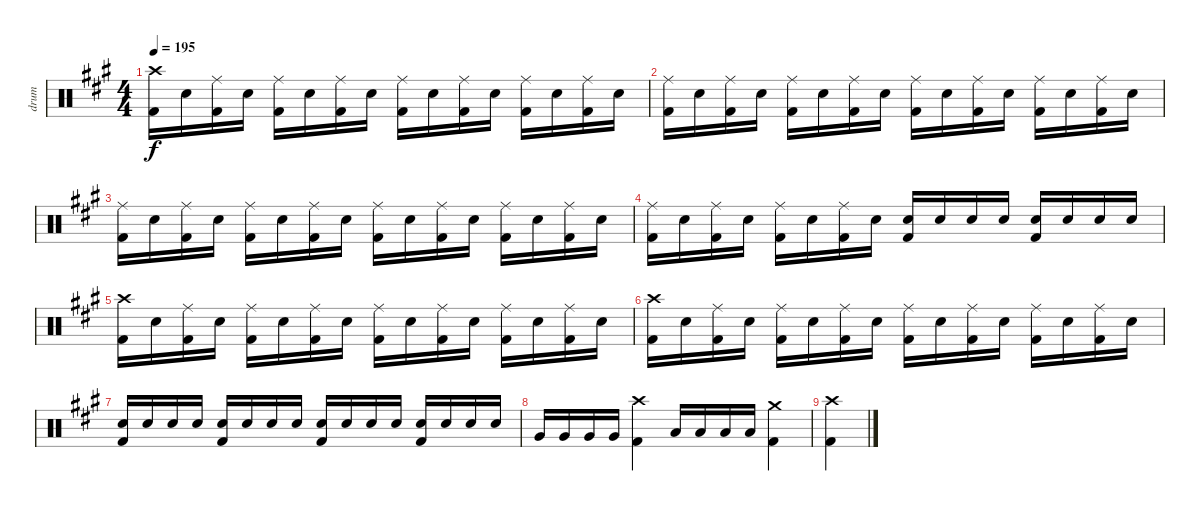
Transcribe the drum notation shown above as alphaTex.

\track ("drum" "drum") {instrument percussion}
\staff {score}
\articulation defaults
\ts (4 4)
\tempo 195
\clef neutral
\ks a
("Crash high (hit)" "Kick (hit) 2").16{dy f} "Electric Snare (hit)".16 ("Ride (middle)" "Kick (hit) 2").16 "Electric Snare (hit)".16 ("Ride (middle)" "Kick (hit) 2").16 "Electric Snare (hit)".16 ("Ride (middle)" "Kick (hit) 2").16 "Electric Snare (hit)".16 ("Ride (middle)" "Kick (hit) 2").16 "Electric Snare (hit)".16 ("Ride (middle)" "Kick (hit) 2").16 "Electric Snare (hit)".16 ("Ride (middle)" "Kick (hit) 2").16 "Electric Snare (hit)".16 ("Ride (middle)" "Kick (hit) 2").16 "Electric Snare (hit)".16 |
("Ride (middle)" "Kick (hit) 2").16 "Electric Snare (hit)".16 ("Ride (middle)" "Kick (hit) 2").16 "Electric Snare (hit)".16 ("Ride (middle)" "Kick (hit) 2").16 "Electric Snare (hit)".16 ("Ride (middle)" "Kick (hit) 2").16 "Electric Snare (hit)".16 ("Ride (middle)" "Kick (hit) 2").16 "Electric Snare (hit)".16 ("Ride (middle)" "Kick (hit) 2").16 "Electric Snare (hit)".16 ("Ride (middle)" "Kick (hit) 2").16 "Electric Snare (hit)".16 ("Ride (middle)" "Kick (hit) 2").16 "Electric Snare (hit)".16 |
("Ride (middle)" "Kick (hit) 2").16 "Electric Snare (hit)".16 ("Ride (middle)" "Kick (hit) 2").16 "Electric Snare (hit)".16 ("Ride (middle)" "Kick (hit) 2").16 "Electric Snare (hit)".16 ("Ride (middle)" "Kick (hit) 2").16 "Electric Snare (hit)".16 ("Ride (middle)" "Kick (hit) 2").16 "Electric Snare (hit)".16 ("Ride (middle)" "Kick (hit) 2").16 "Electric Snare (hit)".16 ("Ride (middle)" "Kick (hit) 2").16 "Electric Snare (hit)".16 ("Ride (middle)" "Kick (hit) 2").16 "Electric Snare (hit)".16 |
("Ride (middle)" "Kick (hit) 2").16 "Electric Snare (hit)".16 ("Ride (middle)" "Kick (hit) 2").16 "Electric Snare (hit)".16 ("Ride (middle)" "Kick (hit) 2").16 "Electric Snare (hit)".16 ("Ride (middle)" "Kick (hit) 2").16 "Electric Snare (hit)".16 ("Electric Snare (hit)" "Kick (hit) 2").16 "Electric Snare (hit)".16 "Electric Snare (hit)".16 "Electric Snare (hit)".16 ("Electric Snare (hit)" "Kick (hit) 2").16 "Electric Snare (hit)".16 "Electric Snare (hit)".16 "Electric Snare (hit)".16 |
("Crash high (hit)" "Kick (hit) 2").16 "Electric Snare (hit)".16 ("Ride (middle)" "Kick (hit) 2").16 "Electric Snare (hit)".16 ("Ride (middle)" "Kick (hit) 2").16 "Electric Snare (hit)".16 ("Ride (middle)" "Kick (hit) 2").16 "Electric Snare (hit)".16 ("Ride (middle)" "Kick (hit) 2").16 "Electric Snare (hit)".16 ("Ride (middle)" "Kick (hit) 2").16 "Electric Snare (hit)".16 ("Ride (middle)" "Kick (hit) 2").16 "Electric Snare (hit)".16 ("Ride (middle)" "Kick (hit) 2").16 "Electric Snare (hit)".16 |
("Crash high (hit)" "Kick (hit) 2").16 "Electric Snare (hit)".16 ("Ride (middle)" "Kick (hit) 2").16 "Electric Snare (hit)".16 ("Ride (middle)" "Kick (hit) 2").16 "Electric Snare (hit)".16 ("Ride (middle)" "Kick (hit) 2").16 "Electric Snare (hit)".16 ("Ride (middle)" "Kick (hit) 2").16 "Electric Snare (hit)".16 ("Ride (middle)" "Kick (hit) 2").16 "Electric Snare (hit)".16 ("Ride (middle)" "Kick (hit) 2").16 "Electric Snare (hit)".16 ("Ride (middle)" "Kick (hit) 2").16 "Electric Snare (hit)".16 |
("Electric Snare (hit)" "Kick (hit) 2").16 "Electric Snare (hit)".16 "Electric Snare (hit)".16 "Electric Snare (hit)".16 ("Electric Snare (hit)" "Kick (hit) 2").16 "Electric Snare (hit)".16 "Electric Snare (hit)".16 "Electric Snare (hit)".16 ("Electric Snare (hit)" "Kick (hit) 2").16 "Electric Snare (hit)".16 "Electric Snare (hit)".16 "Electric Snare (hit)".16 ("Electric Snare (hit)" "Kick (hit) 2").16 "Electric Snare (hit)".16 "Electric Snare (hit)".16 "Electric Snare (hit)".16 |
"Very Low Tom (hit)".16 "Very Low Tom (hit)".16 "Very Low Tom (hit)".16 "Very Low Tom (hit)".16 ("Crash high (hit)" "Kick (hit) 2").4 "Low Tom (hit)".16 "Low Tom (hit)".16 "Low Tom (hit)".16 "Low Tom (hit)".16 ("Crash medium (hit)" "Kick (hit) 2").4 |
("Crash high (hit)" "Kick (hit) 2").4
